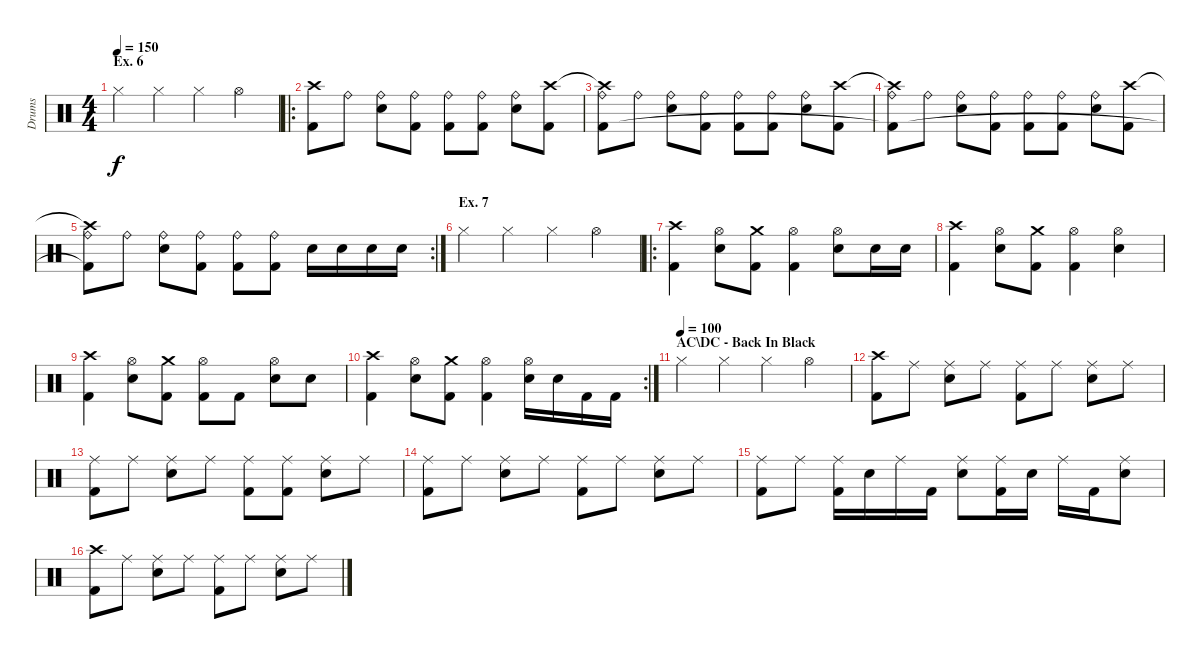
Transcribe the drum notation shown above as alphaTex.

\track ("Drums" "Drums") {instrument percussion}
\staff {score}
\articulation defaults
\ts (4 4)
\section ("" "Ex. 6")
\tempo 150
\clef neutral
\ks c "Hi-Hat (closed)".4{dy f} "Hi-Hat (closed)".4 "Hi-Hat (closed)".4 "Hi-Hat (open)".4
|
\ro
("Crash high (hit)" "Kick (hit) 2").8 "Ride (bell)".8 ("Ride (bell)" "Snare (hit) 2").8 ("Ride (bell)" "Kick (hit) 2").8 ("Ride (bell)" "Kick (hit) 2").8 ("Ride (bell)" "Kick (hit) 2").8 ("Ride (bell)" "Snare (hit) 2").8 ("Crash high (hit)" "Kick (hit) 2").8 |
("Crash high (hit)"{t} "Ride (bell)" "Kick (hit) 2").8 "Ride (bell)".8 ("Ride (bell)" "Snare (hit) 2").8 ("Ride (bell)" "Kick (hit) 2").8 ("Ride (bell)" "Kick (hit) 2").8 ("Ride (bell)" "Kick (hit) 2").8 ("Ride (bell)" "Snare (hit) 2").8 ("Crash high (hit)" "Kick (hit) 2").8 |
("Crash high (hit)"{t} "Ride (bell)" "Kick (hit) 2"{t}).8 "Ride (bell)".8 ("Ride (bell)" "Snare (hit) 2").8 ("Ride (bell)" "Kick (hit) 2").8 ("Ride (bell)" "Kick (hit) 2").8 ("Ride (bell)" "Kick (hit) 2").8 ("Ride (bell)" "Snare (hit) 2").8 ("Crash high (hit)" "Kick (hit) 2").8 |
\rc 2
("Crash high (hit)"{t} "Ride (bell)" "Kick (hit) 2"{t}).8 "Ride (bell)".8 ("Ride (bell)" "Snare (hit) 2").8 ("Ride (bell)" "Kick (hit) 2").8 ("Ride (bell)" "Kick (hit) 2").8 ("Ride (bell)" "Kick (hit) 2").8 "Snare (hit) 2".16 "Snare (hit) 2".16 "Snare (hit) 2".16 "Snare (hit) 2".16 |
\section ("" "Ex. 7")
"Hi-Hat (closed)".4 "Hi-Hat (closed)".4 "Hi-Hat (closed)".4 "Hi-Hat (open)".4 |
\ro
("Crash high (hit)" "Kick (hit) 2").4 ("Hi-Hat (open)" "Snare (hit) 2").8 ("Crash medium (hit)" "Kick (hit) 2").8 ("Hi-Hat (open)" "Kick (hit) 2").4 ("Hi-Hat (open)" "Snare (hit) 2").8 "Snare (hit) 2".16 "Snare (hit) 2".16 |
("Crash high (hit)" "Kick (hit) 2").4 ("Hi-Hat (open)" "Snare (hit) 2").8 ("Crash medium (hit)" "Kick (hit) 2").8 ("Hi-Hat (open)" "Kick (hit) 2").4 ("Hi-Hat (open)" "Snare (hit) 2").4 |
("Crash high (hit)" "Kick (hit) 2").4 ("Hi-Hat (open)" "Snare (hit) 2").8 ("Crash medium (hit)" "Kick (hit) 2").8 ("Hi-Hat (open)" "Kick (hit) 2").8 "Kick (hit) 2".8 ("Hi-Hat (open)" "Snare (hit) 2").8 "Snare (hit) 2".8 |
\rc 2
("Crash high (hit)" "Kick (hit) 2").4 ("Hi-Hat (open)" "Snare (hit) 2").8 ("Crash medium (hit)" "Kick (hit) 2").8 ("Hi-Hat (open)" "Kick (hit) 2").4 ("Hi-Hat (open)" "Snare (hit) 2").16 "Snare (hit) 2".16 "Kick (hit) 2".16 "Kick (hit) 2".16 |
\section ("" "AC\\DC - Back In Black")
\tempo (100)
"Hi-Hat (closed)".4 "Hi-Hat (closed)".4 "Hi-Hat (closed)".4 "Hi-Hat (open)".4 |
("Crash high (hit)" "Kick (hit) 2").8 "Ride (middle)".8 ("Ride (middle)" "Snare (hit) 2").8 "Ride (middle)".8 ("Ride (middle)" "Kick (hit) 2").8 "Ride (middle)".8 ("Ride (middle)" "Snare (hit) 2").8 "Ride (middle)".8 |
("Ride (middle)" "Kick (hit) 2").8 "Ride (middle)".8 ("Ride (middle)" "Snare (hit) 2").8 "Ride (middle)".8 ("Ride (middle)" "Kick (hit) 2").8 ("Ride (middle)" "Kick (hit) 2").8 ("Ride (middle)" "Snare (hit) 2").8 "Ride (middle)".8 |
("Ride (middle)" "Kick (hit) 2").8 "Ride (middle)".8 ("Ride (middle)" "Snare (hit) 2").8 "Ride (middle)".8 ("Ride (middle)" "Kick (hit) 2").8 "Ride (middle)".8 ("Ride (middle)" "Snare (hit) 2").8 "Ride (middle)".8 |
("Ride (middle)" "Kick (hit) 2").8 "Ride (middle)".8 ("Ride (middle)" "Kick (hit) 2").16 "Snare (hit) 2".16 "Ride (middle)".16 "Kick (hit) 2".16 ("Ride (middle)" "Snare (hit) 2").8 ("Ride (middle)" "Kick (hit) 2").16 "Snare (hit) 2".16 "Ride (middle)".16 "Kick (hit) 2".16 ("Ride (middle)" "Snare (hit) 2").8 |
("Crash high (hit)" "Kick (hit) 2").8 "Ride (middle)".8 ("Ride (middle)" "Snare (hit) 2").8 "Ride (middle)".8 ("Ride (middle)" "Kick (hit) 2").8 "Ride (middle)".8 ("Ride (middle)" "Snare (hit) 2").8 "Ride (middle)".8
